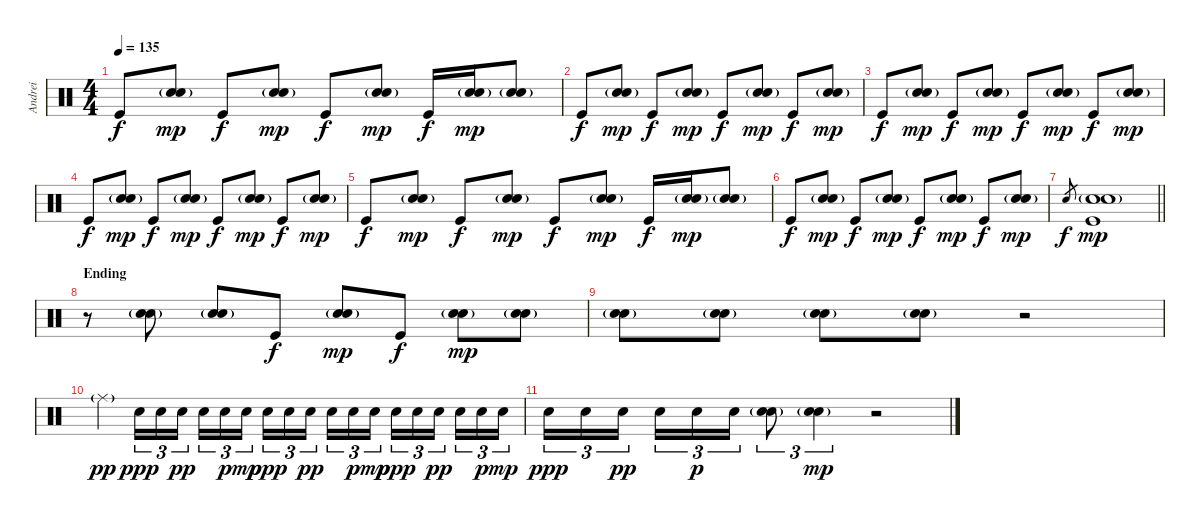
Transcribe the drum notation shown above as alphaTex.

\track ("Andrei" "Andrei") {instrument percussion}
\staff {score}
\articulation defaults
\ts (4 4)
\tempo 135
\clef neutral
\ks c "Kick (hit)".8{dy f}
("Hand Clap (hit)"{g} "Snare (hit) 2").8{dy mp} "Kick (hit)".8{dy f} ("Hand Clap (hit)"{g} "Snare (hit) 2").8{dy mp} "Kick (hit)".8{dy f} ("Hand Clap (hit)"{g} "Snare (hit) 2").8{dy mp} "Kick (hit)".16{dy f} ("Hand Clap (hit)"{g} "Snare (hit) 2"{g}).16{dy mp} ("Hand Clap (hit)"{g} "Snare (hit) 2").8 |
"Kick (hit)".8{dy f} ("Hand Clap (hit)"{g} "Snare (hit) 2").8{dy mp} "Kick (hit)".8{dy f} ("Hand Clap (hit)"{g} "Snare (hit) 2").8{dy mp} "Kick (hit)".8{dy f} ("Hand Clap (hit)"{g} "Snare (hit) 2").8{dy mp} "Kick (hit)".8{dy f} ("Hand Clap (hit)"{g} "Snare (hit) 2").8{dy mp} |
"Kick (hit)".8{dy f} ("Hand Clap (hit)"{g} "Snare (hit) 2").8{dy mp} "Kick (hit)".8{dy f} ("Hand Clap (hit)"{g} "Snare (hit) 2").8{dy mp} "Kick (hit)".8{dy f} ("Hand Clap (hit)"{g} "Snare (hit) 2").8{dy mp} "Kick (hit)".8{dy f} ("Hand Clap (hit)"{g} "Snare (hit) 2").8{dy mp} |
"Kick (hit)".8{dy f} ("Hand Clap (hit)"{g} "Snare (hit) 2").8{dy mp} "Kick (hit)".8{dy f} ("Hand Clap (hit)"{g} "Snare (hit) 2").8{dy mp} "Kick (hit)".8{dy f} ("Hand Clap (hit)"{g} "Snare (hit) 2").8{dy mp} "Kick (hit)".8{dy f} ("Hand Clap (hit)"{g} "Snare (hit) 2").8{dy mp} |
"Kick (hit)".8{dy f} ("Hand Clap (hit)"{g} "Snare (hit) 2").8{dy mp} "Kick (hit)".8{dy f} ("Hand Clap (hit)"{g} "Snare (hit) 2").8{dy mp} "Kick (hit)".8{dy f} ("Hand Clap (hit)"{g} "Snare (hit) 2").8{dy mp} "Kick (hit)".16{dy f} ("Hand Clap (hit)"{g} "Snare (hit) 2"{g}).16{dy mp} ("Hand Clap (hit)"{g} "Snare (hit) 2").8 |
"Kick (hit)".8{dy f} ("Hand Clap (hit)"{g} "Snare (hit) 2").8{dy mp} "Kick (hit)".8{dy f} ("Hand Clap (hit)"{g} "Snare (hit) 2").8{dy mp} "Kick (hit)".8{dy f} ("Hand Clap (hit)"{g} "Snare (hit) 2").8{dy mp} "Kick (hit)".8{dy f} ("Hand Clap (hit)"{g} "Snare (hit) 2").8{dy mp} |
\barLineRight lightlight "Snare (hit) 2".8{gr dy f}
("Hand Clap (hit)"{g} "Snare (hit) 2" "Kick (hit)").1{dy mp} |
\section ("" "Ending")
r.8 ("Hand Clap (hit)"{g} "Snare (hit) 2").8 ("Hand Clap (hit)"{g} "Snare (hit) 2").8 "Kick (hit)".8{dy f} ("Hand Clap (hit)"{g} "Snare (hit) 2").8{dy mp} "Kick (hit)".8{dy f} ("Hand Clap (hit)"{g} "Snare (hit) 2").8{dy mp} ("Hand Clap (hit)"{g} "Snare (hit) 2").8 |
("Hand Clap (hit)"{g} "Snare (hit) 2").8 ("Hand Clap (hit)"{g} "Snare (hit) 2").8 ("Hand Clap (hit)"{g} "Snare (hit) 2").8 ("Hand Clap (hit)"{g} "Snare (hit) 2").8 r.2 |
"Ride (middle)"{g}.4{dy pp} "Snare (hit) 2".16{tu (3 2) dy ppp} "Snare (hit) 2".16{tu (3 2)} "Snare (hit) 2".16{tu (3 2) dy pp beam splitsecondary} "Snare (hit) 2".16{tu (3 2)} "Snare (hit) 2".16{tu (3 2) dy p} "Snare (hit) 2".16{tu (3 2) dy mp} "Snare (hit) 2".16{tu (3 2) dy ppp} "Snare (hit) 2".16{tu (3 2)} "Snare (hit) 2".16{tu (3 2) dy pp beam splitsecondary} "Snare (hit) 2".16{tu (3 2)} "Snare (hit) 2".16{tu (3 2) dy p} "Snare (hit) 2".16{tu (3 2) dy mp} "Snare (hit) 2".16{tu (3 2) dy ppp} "Snare (hit) 2".16{tu (3 2)} "Snare (hit) 2".16{tu (3 2) dy pp beam splitsecondary} "Snare (hit) 2".16{tu (3 2)} "Snare (hit) 2".16{tu (3 2) dy p} "Snare (hit) 2".16{tu (3 2) dy mp} |
"Snare (hit) 2".16{tu (3 2) dy ppp} "Snare (hit) 2".16{tu (3 2)} "Snare (hit) 2".16{tu (3 2) dy pp beam splitsecondary} "Snare (hit) 2".16{tu (3 2)} "Snare (hit) 2".16{tu (3 2) dy p} "Snare (hit) 2".16{tu (3 2)} ("Hand Clap (hit)"{g} "Snare (hit) 2").8{tu (3 2)} ("Hand Clap (hit)"{g} "Snare (hit) 2").4{tu (3 2) dy mp} r.2
